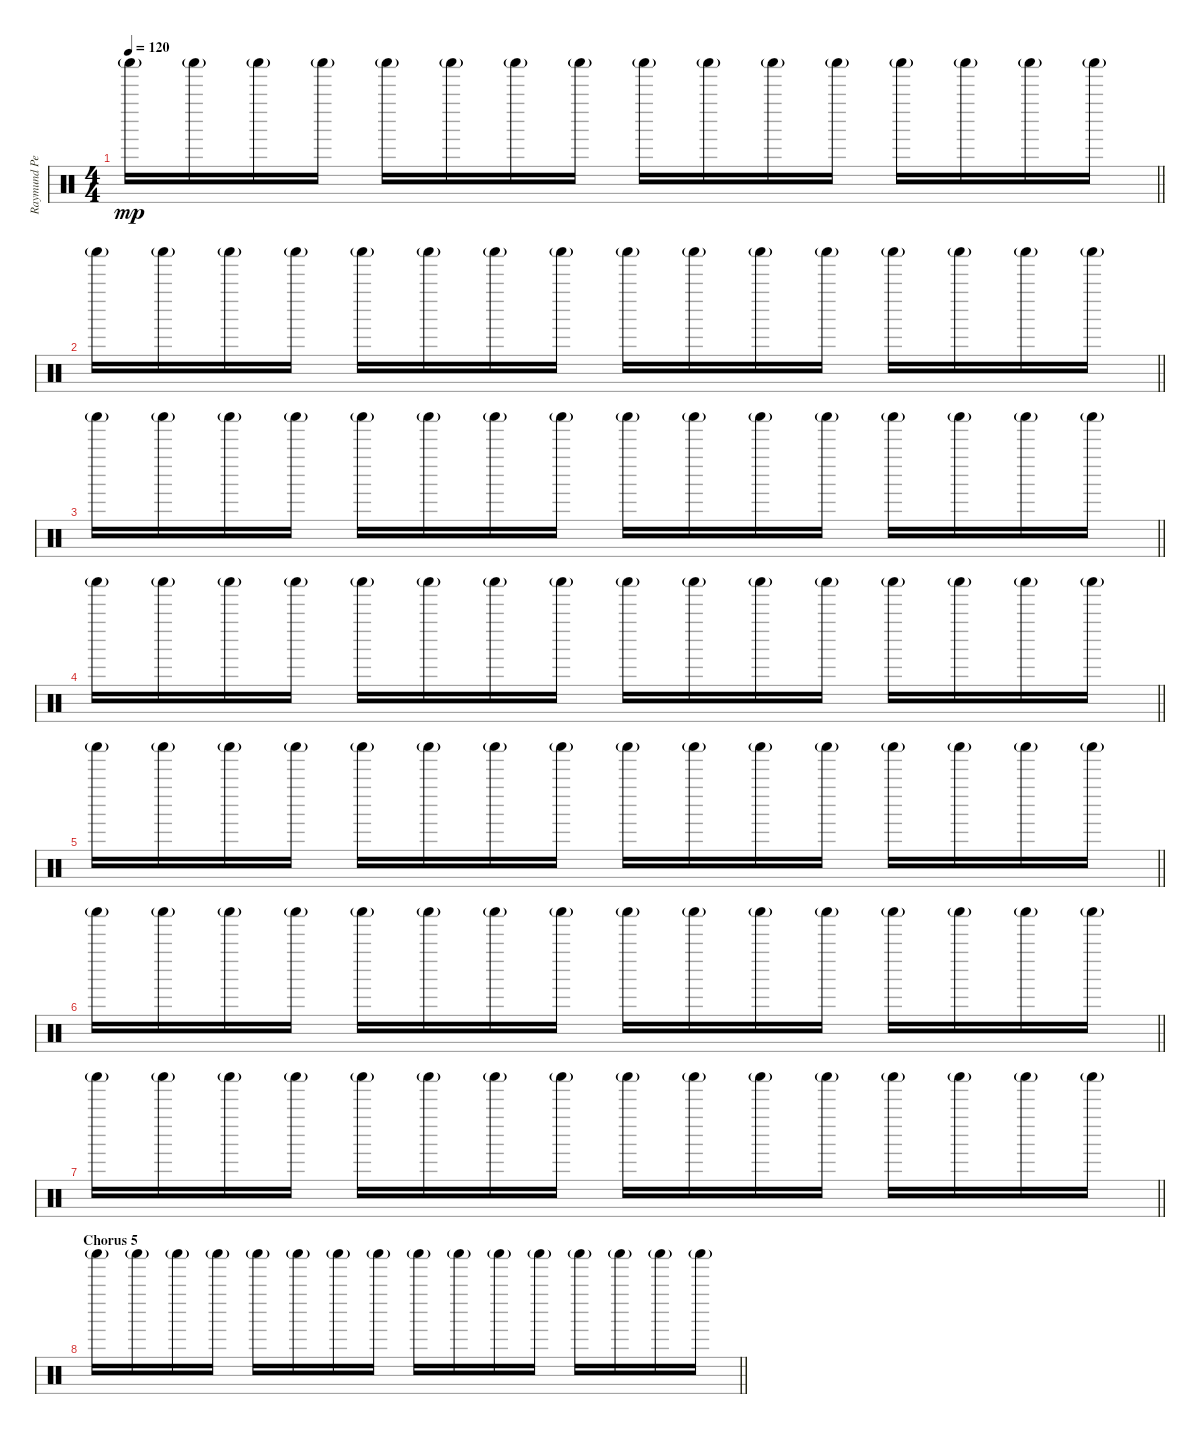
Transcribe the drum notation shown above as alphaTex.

\track ("Raymund Percussion" "Raymund Pe") {instrument percussion}
\staff {score}
\articulation defaults
\ts (4 4)
\tempo 120
\clef neutral
\barLineRight lightlight
\ks c "Shaker (hit)"{g}.16{dy mp} "Shaker (hit)"{g}.16 "Shaker (hit)"{g}.16 "Shaker (hit)"{g}.16 "Shaker (hit)"{g}.16 "Shaker (hit)"{g}.16 "Shaker (hit)"{g}.16 "Shaker (hit)"{g}.16 "Shaker (hit)"{g}.16 "Shaker (hit)"{g}.16 "Shaker (hit)"{g}.16 "Shaker (hit)"{g}.16 "Shaker (hit)"{g}.16 "Shaker (hit)"{g}.16 "Shaker (hit)"{g}.16 "Shaker (hit)"{g}.16
|
\barLineRight lightlight "Shaker (hit)"{g}.16 "Shaker (hit)"{g}.16 "Shaker (hit)"{g}.16 "Shaker (hit)"{g}.16 "Shaker (hit)"{g}.16 "Shaker (hit)"{g}.16 "Shaker (hit)"{g}.16 "Shaker (hit)"{g}.16 "Shaker (hit)"{g}.16 "Shaker (hit)"{g}.16 "Shaker (hit)"{g}.16 "Shaker (hit)"{g}.16 "Shaker (hit)"{g}.16 "Shaker (hit)"{g}.16 "Shaker (hit)"{g}.16 "Shaker (hit)"{g}.16
|
\barLineRight lightlight "Shaker (hit)"{g}.16 "Shaker (hit)"{g}.16 "Shaker (hit)"{g}.16 "Shaker (hit)"{g}.16 "Shaker (hit)"{g}.16 "Shaker (hit)"{g}.16 "Shaker (hit)"{g}.16 "Shaker (hit)"{g}.16 "Shaker (hit)"{g}.16 "Shaker (hit)"{g}.16 "Shaker (hit)"{g}.16 "Shaker (hit)"{g}.16 "Shaker (hit)"{g}.16 "Shaker (hit)"{g}.16 "Shaker (hit)"{g}.16 "Shaker (hit)"{g}.16
|
\barLineRight lightlight "Shaker (hit)"{g}.16 "Shaker (hit)"{g}.16 "Shaker (hit)"{g}.16 "Shaker (hit)"{g}.16 "Shaker (hit)"{g}.16 "Shaker (hit)"{g}.16 "Shaker (hit)"{g}.16 "Shaker (hit)"{g}.16 "Shaker (hit)"{g}.16 "Shaker (hit)"{g}.16 "Shaker (hit)"{g}.16 "Shaker (hit)"{g}.16 "Shaker (hit)"{g}.16 "Shaker (hit)"{g}.16 "Shaker (hit)"{g}.16 "Shaker (hit)"{g}.16
|
\barLineRight lightlight "Shaker (hit)"{g}.16 "Shaker (hit)"{g}.16 "Shaker (hit)"{g}.16 "Shaker (hit)"{g}.16 "Shaker (hit)"{g}.16 "Shaker (hit)"{g}.16 "Shaker (hit)"{g}.16 "Shaker (hit)"{g}.16 "Shaker (hit)"{g}.16 "Shaker (hit)"{g}.16 "Shaker (hit)"{g}.16 "Shaker (hit)"{g}.16 "Shaker (hit)"{g}.16 "Shaker (hit)"{g}.16 "Shaker (hit)"{g}.16 "Shaker (hit)"{g}.16
|
\barLineRight lightlight "Shaker (hit)"{g}.16 "Shaker (hit)"{g}.16 "Shaker (hit)"{g}.16 "Shaker (hit)"{g}.16 "Shaker (hit)"{g}.16 "Shaker (hit)"{g}.16 "Shaker (hit)"{g}.16 "Shaker (hit)"{g}.16 "Shaker (hit)"{g}.16 "Shaker (hit)"{g}.16 "Shaker (hit)"{g}.16 "Shaker (hit)"{g}.16 "Shaker (hit)"{g}.16 "Shaker (hit)"{g}.16 "Shaker (hit)"{g}.16 "Shaker (hit)"{g}.16
|
\barLineRight lightlight "Shaker (hit)"{g}.16 "Shaker (hit)"{g}.16 "Shaker (hit)"{g}.16 "Shaker (hit)"{g}.16 "Shaker (hit)"{g}.16 "Shaker (hit)"{g}.16 "Shaker (hit)"{g}.16 "Shaker (hit)"{g}.16 "Shaker (hit)"{g}.16 "Shaker (hit)"{g}.16 "Shaker (hit)"{g}.16 "Shaker (hit)"{g}.16 "Shaker (hit)"{g}.16 "Shaker (hit)"{g}.16 "Shaker (hit)"{g}.16 "Shaker (hit)"{g}.16
|
\section ("" "Chorus 5")
\barLineRight lightlight "Shaker (hit)"{g}.16 "Shaker (hit)"{g}.16 "Shaker (hit)"{g}.16 "Shaker (hit)"{g}.16 "Shaker (hit)"{g}.16 "Shaker (hit)"{g}.16 "Shaker (hit)"{g}.16 "Shaker (hit)"{g}.16 "Shaker (hit)"{g}.16 "Shaker (hit)"{g}.16 "Shaker (hit)"{g}.16 "Shaker (hit)"{g}.16 "Shaker (hit)"{g}.16 "Shaker (hit)"{g}.16 "Shaker (hit)"{g}.16 "Shaker (hit)"{g}.16
